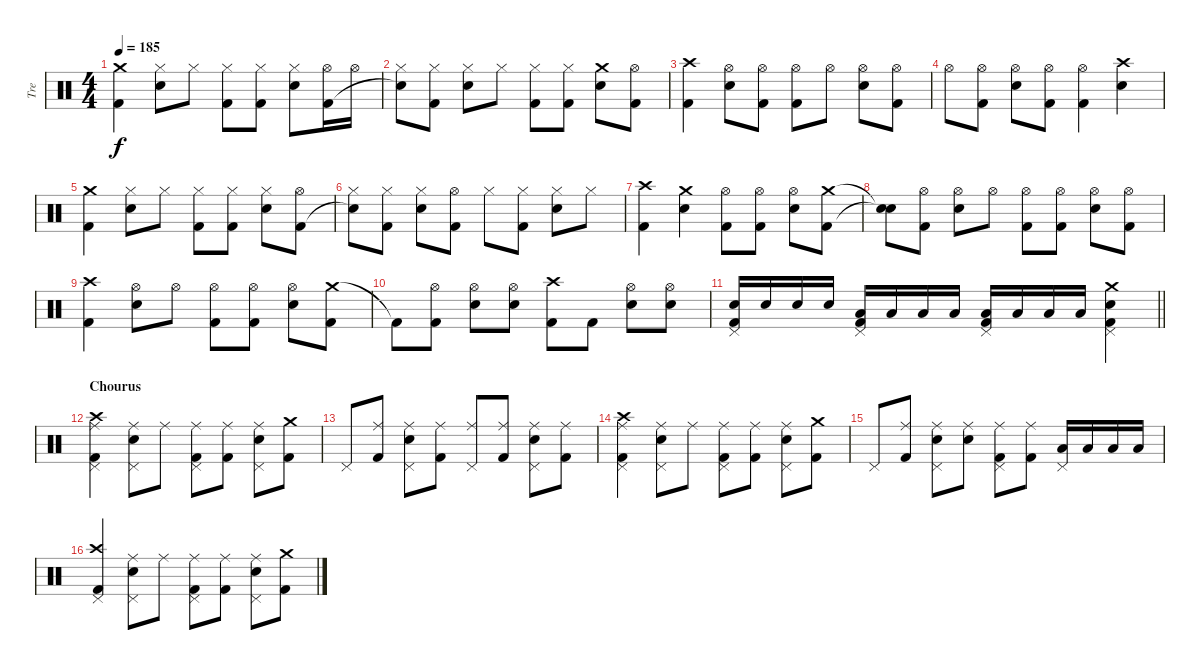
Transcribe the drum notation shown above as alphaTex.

\track ("Tre" "Tre") {instrument percussion}
\staff {score}
\articulation defaults
\ts (4 4)
\tempo 185
\clef neutral
\ks c
("Crash medium (hit)" "Kick (hit) 2").4{dy f} ("Hi-Hat (closed)" "Snare (hit) 2").8 "Hi-Hat (closed)".8 ("Hi-Hat (closed)" "Kick (hit) 2").8 ("Hi-Hat (closed)" "Kick (hit) 2").8 ("Hi-Hat (closed)" "Snare (hit) 2").8 ("Hi-Hat (open)" "Kick (hit) 2").16 "Hi-Hat (open)".16 |
("Hi-Hat (closed)" "Snare (hit)"{t}).8 ("Hi-Hat (closed)" "Kick (hit) 2").8 ("Hi-Hat (closed)" "Snare (hit) 2").8 "Hi-Hat (closed)".8 ("Hi-Hat (closed)" "Kick (hit) 2").8 ("Hi-Hat (closed)" "Kick (hit) 2").8 ("Crash medium (hit)" "Snare (hit) 2").8 ("Hi-Hat (open)" "Kick (hit) 2").8 |
("Crash high (hit)" "Kick (hit) 2").4 ("Hi-Hat (open)" "Snare (hit) 2").8 ("Hi-Hat (open)" "Kick (hit) 2").8 ("Hi-Hat (open)" "Kick (hit) 2").8 "Hi-Hat (open)".8 ("Hi-Hat (open)" "Snare (hit) 2").8 ("Hi-Hat (open)" "Kick (hit) 2").8 |
"Hi-Hat (open)".8 ("Hi-Hat (open)" "Kick (hit) 2").8 ("Hi-Hat (open)" "Snare (hit) 2").8 ("Hi-Hat (open)" "Kick (hit) 2").8 ("Hi-Hat (open)" "Kick (hit) 2").4 ("Crash high (hit)" "Snare (hit) 2").4 |
("Crash medium (hit)" "Kick (hit) 2").4 ("Hi-Hat (closed)" "Snare (hit) 2").8 "Hi-Hat (closed)".8 ("Hi-Hat (closed)" "Kick (hit) 2").8 ("Hi-Hat (closed)" "Kick (hit) 2").8 ("Hi-Hat (closed)" "Snare (hit) 2").8 ("Hi-Hat (open)" "Kick (hit) 2").8 |
("Hi-Hat (closed)" "Snare (hit)"{t}).8 ("Hi-Hat (closed)" "Kick (hit) 2").8 ("Hi-Hat (closed)" "Snare (hit) 2").8 ("Hi-Hat (open)" "Kick (hit) 2").8 "Hi-Hat (closed)".8 ("Hi-Hat (closed)" "Kick (hit) 2").8 ("Hi-Hat (closed)" "Snare (hit) 2").8 "Hi-Hat (closed)".8 |
("Crash high (hit)" "Kick (hit) 2").4 ("Crash medium (hit)" "Snare (hit) 2").4 ("Hi-Hat (open)" "Kick (hit) 2").8 ("Hi-Hat (open)" "Kick (hit) 2").8 ("Hi-Hat (open)" "Snare (hit) 2").8 ("Crash medium (hit)" "Kick (hit) 2").8 |
("Snare (hit)"{t} "Snare (hit)"{t}).8 ("Hi-Hat (open)" "Kick (hit) 2").8 ("Hi-Hat (open)" "Snare (hit) 2").8 "Hi-Hat (open)".8 ("Hi-Hat (open)" "Kick (hit) 2").8 ("Hi-Hat (open)" "Kick (hit) 2").8 ("Hi-Hat (open)" "Snare (hit) 2").8 ("Hi-Hat (open)" "Kick (hit) 2").8 |
("Crash high (hit)" "Kick (hit) 2").4 ("Hi-Hat (open)" "Snare (hit) 2").8 "Hi-Hat (open)".8 ("Hi-Hat (open)" "Kick (hit) 2").8 ("Hi-Hat (open)" "Kick (hit) 2").8 ("Hi-Hat (open)" "Snare (hit) 2").8 ("Crash medium (hit)" "Kick (hit) 2").8 |
"Kick (hit) 2"{t}.8 ("Hi-Hat (open)" "Kick (hit) 2").8 ("Hi-Hat (open)" "Snare (hit) 2").8 ("Hi-Hat (open)" "Snare (hit) 2").8 ("Crash high (hit)" "Kick (hit) 2").8 "Kick (hit) 2".8 ("Hi-Hat (open)" "Snare (hit) 2").8 ("Hi-Hat (open)" "Snare (hit) 2").8 |
\barLineRight lightlight
("Snare (hit) 2" "Pedal Hi-Hat (hit)" "Kick (hit) 2").16 "Snare (hit) 2".16 "Snare (hit) 2".16 "Snare (hit) 2".16 ("Low Tom (hit)" "Pedal Hi-Hat (hit)" "Kick (hit) 2").16 "Low Tom (hit)".16 "Low Tom (hit)".16 "Low Tom (hit)".16 ("Low Floor Tom (hit)" "Pedal Hi-Hat (hit)" "Kick (hit) 2").16 "Low Floor Tom (hit)".16 "Low Floor Tom (hit)".16 "Low Floor Tom (hit)".16 ("Crash medium (hit)" "Snare (hit) 2" "Pedal Hi-Hat (hit)" "Kick (hit) 2").4 |
\section ("" "Chourus")
("Crash high (hit)" "Ride (middle)" "Pedal Hi-Hat (hit)" "Kick (hit) 2").4 ("Ride (middle)" "Snare (hit) 2" "Pedal Hi-Hat (hit)").8 "Ride (middle)".8 ("Ride (middle)" "Pedal Hi-Hat (hit)" "Kick (hit) 2").8 ("Ride (middle)" "Kick (hit) 2").8 ("Ride (middle)" "Snare (hit) 2" "Pedal Hi-Hat (hit)").8 ("Crash medium (hit)" "Kick (hit) 2").8 |
"Pedal Hi-Hat (hit)".8 ("Ride (middle)" "Kick (hit) 2").8 ("Ride (middle)" "Snare (hit) 2" "Pedal Hi-Hat (hit)").8 ("Ride (middle)" "Kick (hit) 2").8 ("Ride (middle)" "Pedal Hi-Hat (hit)").8 ("Ride (middle)" "Kick (hit) 2").8 ("Ride (middle)" "Snare (hit) 2" "Pedal Hi-Hat (hit)").8 ("Ride (middle)" "Kick (hit) 2").8 |
("Crash high (hit)" "Ride (middle)" "Pedal Hi-Hat (hit)" "Kick (hit) 2").4 ("Ride (middle)" "Snare (hit) 2" "Pedal Hi-Hat (hit)").8 "Ride (middle)".8 ("Ride (middle)" "Pedal Hi-Hat (hit)" "Kick (hit) 2").8 ("Ride (middle)" "Kick (hit) 2").8 ("Ride (middle)" "Snare (hit) 2" "Pedal Hi-Hat (hit)").8 ("Crash medium (hit)" "Kick (hit) 2").8 |
"Pedal Hi-Hat (hit)".8 ("Ride (middle)" "Kick (hit) 2").8 ("Ride (middle)" "Snare (hit) 2" "Pedal Hi-Hat (hit)").8 ("Ride (middle)" "Snare (hit) 2").8 ("Ride (middle)" "Pedal Hi-Hat (hit)" "Kick (hit) 2").8 ("Ride (middle)" "Kick (hit) 2").8 ("Low Tom (hit)" "Pedal Hi-Hat (hit)").16 "Low Tom (hit)".16 "Low Tom (hit)".16 "Low Tom (hit)".16 |
("Crash high (hit)" "Pedal Hi-Hat (hit)" "Kick (hit) 2").4 ("Ride (middle)" "Snare (hit) 2" "Pedal Hi-Hat (hit)").8 "Ride (middle)".8 ("Ride (middle)" "Pedal Hi-Hat (hit)" "Kick (hit) 2").8 ("Ride (middle)" "Kick (hit) 2").8 ("Ride (middle)" "Snare (hit) 2" "Pedal Hi-Hat (hit)").8 ("Crash medium (hit)" "Kick (hit) 2").8
